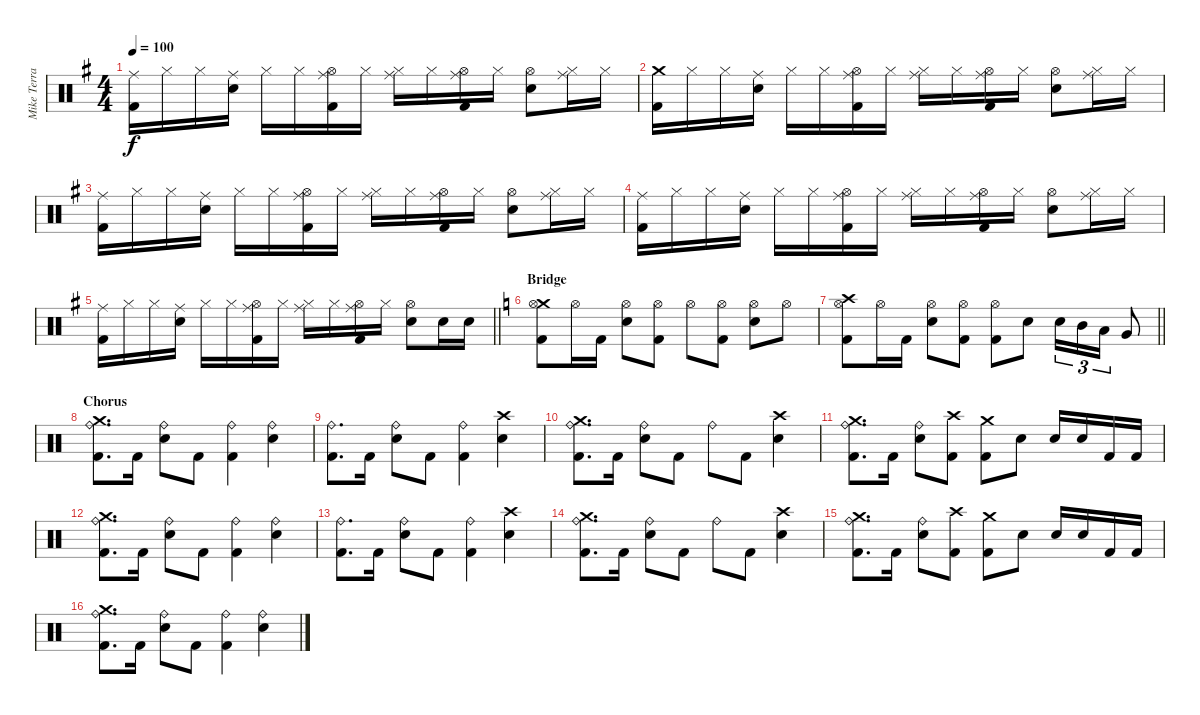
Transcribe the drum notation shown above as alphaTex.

\track ("Mike Terrana" "Mike Terra") {instrument percussion}
\staff {score}
\articulation defaults
\ts (4 4)
\tempo 100
\clef neutral
\ks eminor
("Ride (middle)" "Kick (hit) 2").16{dy f} "Hi-Hat (closed)".16 "Hi-Hat (closed)".16 ("Ride (middle)" "Snare (hit) 2").16 "Hi-Hat (closed)".16 "Hi-Hat (closed)".16 ("Ride (middle)" "Hi-Hat (open)" "Kick (hit) 2").16 "Hi-Hat (closed)".16 ("Ride (middle)" "Hi-Hat (closed)").16 "Hi-Hat (closed)".16 ("Ride (middle)" "Hi-Hat (open)" "Kick (hit) 2").16 "Hi-Hat (closed)".16 ("Hi-Hat (open)" "Snare (hit) 2").8 ("Ride (middle)" "Hi-Hat (closed)").16 "Hi-Hat (closed)".16 |
("Crash medium (hit)" "Kick (hit) 2").16 "Hi-Hat (closed)".16 "Hi-Hat (closed)".16 ("Ride (middle)" "Snare (hit) 2").16 "Hi-Hat (closed)".16 "Hi-Hat (closed)".16 ("Ride (middle)" "Hi-Hat (open)" "Kick (hit) 2").16 "Hi-Hat (closed)".16 ("Ride (middle)" "Hi-Hat (closed)").16 "Hi-Hat (closed)".16 ("Ride (middle)" "Hi-Hat (open)" "Kick (hit) 2").16 "Hi-Hat (closed)".16 ("Hi-Hat (open)" "Snare (hit) 2").8 ("Ride (middle)" "Hi-Hat (closed)").16 "Hi-Hat (closed)".16 |
("Ride (middle)" "Kick (hit) 2").16 "Hi-Hat (closed)".16 "Hi-Hat (closed)".16 ("Ride (middle)" "Snare (hit) 2").16 "Hi-Hat (closed)".16 "Hi-Hat (closed)".16 ("Ride (middle)" "Hi-Hat (open)" "Kick (hit) 2").16 "Hi-Hat (closed)".16 ("Ride (middle)" "Hi-Hat (closed)").16 "Hi-Hat (closed)".16 ("Ride (middle)" "Hi-Hat (open)" "Kick (hit) 2").16 "Hi-Hat (closed)".16 ("Hi-Hat (open)" "Snare (hit) 2").8 ("Ride (middle)" "Hi-Hat (closed)").16 "Hi-Hat (closed)".16 |
("Ride (middle)" "Kick (hit) 2").16 "Hi-Hat (closed)".16 "Hi-Hat (closed)".16 ("Ride (middle)" "Snare (hit) 2").16 "Hi-Hat (closed)".16 "Hi-Hat (closed)".16 ("Ride (middle)" "Hi-Hat (open)" "Kick (hit) 2").16 "Hi-Hat (closed)".16 ("Ride (middle)" "Hi-Hat (closed)").16 "Hi-Hat (closed)".16 ("Ride (middle)" "Hi-Hat (open)" "Kick (hit) 2").16 "Hi-Hat (closed)".16 ("Hi-Hat (open)" "Snare (hit) 2").8 ("Ride (middle)" "Hi-Hat (closed)").16 "Hi-Hat (closed)".16 |
\barLineRight lightlight
("Ride (middle)" "Kick (hit) 2").16 "Hi-Hat (closed)".16 "Hi-Hat (closed)".16 ("Ride (middle)" "Snare (hit) 2").16 "Hi-Hat (closed)".16 "Hi-Hat (closed)".16 ("Ride (middle)" "Hi-Hat (open)" "Kick (hit) 2").16 "Hi-Hat (closed)".16 ("Ride (middle)" "Hi-Hat (closed)").16 "Hi-Hat (closed)".16 ("Ride (middle)" "Hi-Hat (open)" "Kick (hit) 2").16 "Hi-Hat (closed)".16 ("Hi-Hat (open)" "Snare (hit) 2").8 "Snare (hit) 2".16 "Snare (hit) 2".16 |
\section ("" "Bridge")
\ks c
("Crash medium (hit)" "Hi-Hat (open)" "Kick (hit) 2").8 "Hi-Hat (open)".16 "Kick (hit) 2".16 ("Hi-Hat (open)" "Snare (hit) 2").8 ("Hi-Hat (open)" "Kick (hit) 2").8 "Hi-Hat (open)".8 ("Hi-Hat (open)" "Kick (hit) 2").8 ("Hi-Hat (open)" "Snare (hit) 2").8 "Hi-Hat (open)".8 |
\barLineRight lightlight
("Crash high (hit)" "Hi-Hat (open)" "Kick (hit) 2").8 "Hi-Hat (open)".16 "Kick (hit) 2".16 ("Hi-Hat (open)" "Snare (hit) 2").8 ("Hi-Hat (open)" "Kick (hit) 2").8 ("Hi-Hat (open)" "Kick (hit) 2").8 "Snare (hit) 2".8 "Snare (hit) 2".16{tu (3 2)} "Mid Tom (hit)".16{tu (3 2)} "Low Tom (hit)".16{tu (3 2)} "Very Low Tom (hit)".8 |
\section ("" "Chorus")
("Crash medium (hit)" "Ride (bell)" "Kick (hit) 2").8{d} "Kick (hit) 2".16 ("Ride (bell)" "Snare (hit) 2").8 "Kick (hit) 2".8 ("Ride (bell)" "Kick (hit) 2").4 ("Ride (bell)" "Snare (hit) 2").4 |
("Ride (bell)" "Kick (hit) 2").8{d} "Kick (hit) 2".16 ("Ride (bell)" "Snare (hit) 2").8 "Kick (hit) 2".8 ("Ride (bell)" "Kick (hit) 2").4 ("Crash high (hit)" "Snare (hit) 2").4 |
("Crash medium (hit)" "Ride (bell)" "Kick (hit) 2").8{d} "Kick (hit) 2".16 ("Ride (bell)" "Snare (hit) 2").8 "Kick (hit) 2".8 "Ride (bell)".8 "Kick (hit) 2".8 ("Crash high (hit)" "Snare (hit) 2").4 |
("Crash medium (hit)" "Ride (bell)" "Kick (hit) 2").8{d} "Kick (hit) 2".16 ("Ride (bell)" "Snare (hit) 2").8 ("Crash high (hit)" "Kick (hit) 2").8 ("Crash medium (hit)" "Kick (hit) 2").8 "Snare (hit) 2".8 "Snare (hit) 2".16 "Snare (hit) 2".16 "Kick (hit) 2".16 "Kick (hit) 2".16 |
("Crash medium (hit)" "Ride (bell)" "Kick (hit) 2").8{d} "Kick (hit) 2".16 ("Ride (bell)" "Snare (hit) 2").8 "Kick (hit) 2".8 ("Ride (bell)" "Kick (hit) 2").4 ("Ride (bell)" "Snare (hit) 2").4 |
("Ride (bell)" "Kick (hit) 2").8{d} "Kick (hit) 2".16 ("Ride (bell)" "Snare (hit) 2").8 "Kick (hit) 2".8 ("Ride (bell)" "Kick (hit) 2").4 ("Crash high (hit)" "Snare (hit) 2").4 |
("Crash medium (hit)" "Ride (bell)" "Kick (hit) 2").8{d} "Kick (hit) 2".16 ("Ride (bell)" "Snare (hit) 2").8 "Kick (hit) 2".8 "Ride (bell)".8 "Kick (hit) 2".8 ("Crash high (hit)" "Snare (hit) 2").4 |
("Crash medium (hit)" "Ride (bell)" "Kick (hit) 2").8{d} "Kick (hit) 2".16 ("Ride (bell)" "Snare (hit) 2").8 ("Crash high (hit)" "Kick (hit) 2").8 ("Crash medium (hit)" "Kick (hit) 2").8 "Snare (hit) 2".8 "Snare (hit) 2".16 "Snare (hit) 2".16 "Kick (hit) 2".16 "Kick (hit) 2".16 |
("Crash medium (hit)" "Ride (bell)" "Kick (hit) 2").8{d} "Kick (hit) 2".16 ("Ride (bell)" "Snare (hit) 2").8 "Kick (hit) 2".8 ("Ride (bell)" "Kick (hit) 2").4 ("Ride (bell)" "Snare (hit) 2").4
